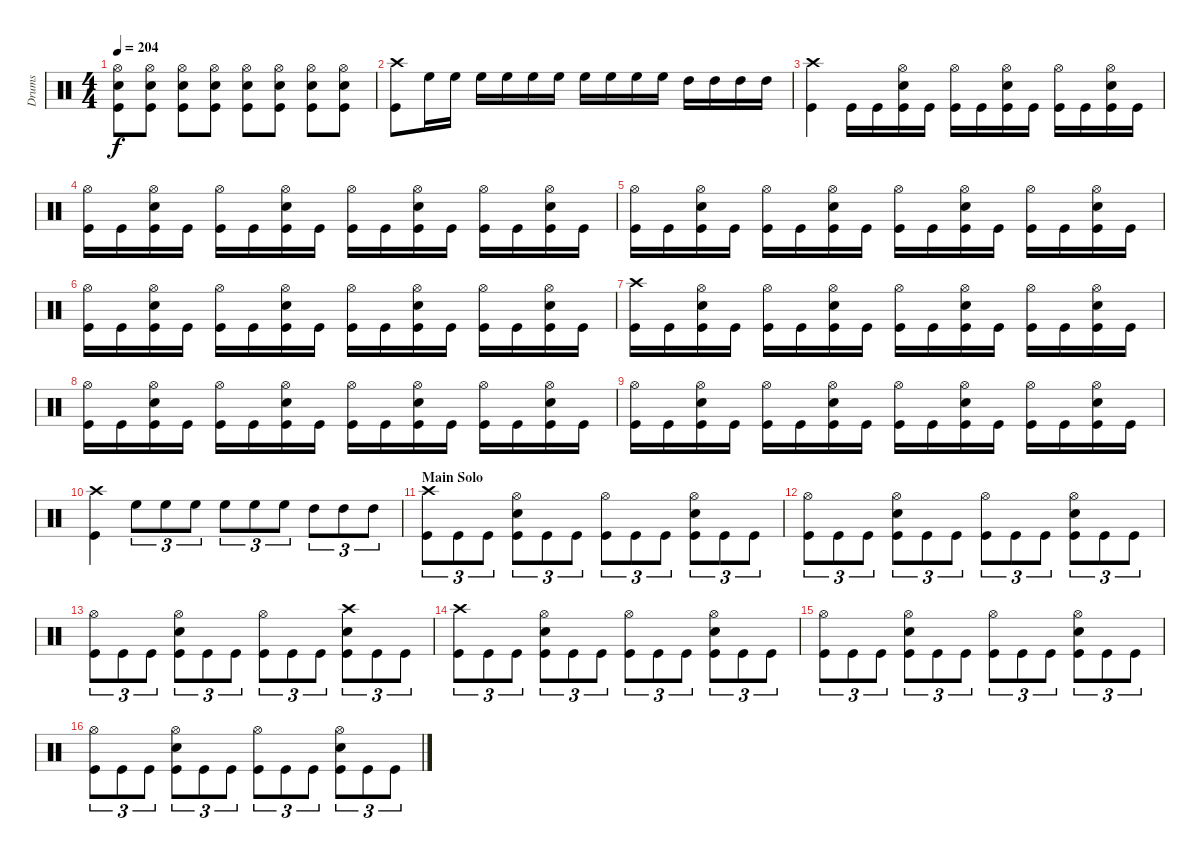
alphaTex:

\track ("Drums" "Drums") {instrument percussion}
\staff {score}
\articulation defaults
\ts (4 4)
\tempo 204
\clef neutral
\ks c
("Hi-Hat (open)" "Snare (hit) 2" "Kick (hit)").8{dy f} ("Hi-Hat (open)" "Snare (hit) 2" "Kick (hit)").8 ("Hi-Hat (open)" "Snare (hit) 2" "Kick (hit)").8 ("Hi-Hat (open)" "Snare (hit) 2" "Kick (hit)").8 ("Hi-Hat (open)" "Snare (hit) 2" "Kick (hit)").8 ("Hi-Hat (open)" "Snare (hit) 2" "Kick (hit)").8 ("Hi-Hat (open)" "Snare (hit) 2" "Kick (hit)").8 ("Hi-Hat (open)" "Snare (hit) 2" "Kick (hit)").8 |
("Crash high (hit)" "Kick (hit)").8 "High Floor Tom (hit)".16 "High Floor Tom (hit)".16 "High Floor Tom (hit)".16 "High Floor Tom (hit)".16 "High Floor Tom (hit)".16 "High Floor Tom (hit)".16 "High Floor Tom (hit)".16 "High Floor Tom (hit)".16 "High Floor Tom (hit)".16 "High Floor Tom (hit)".16 "High Tom (hit)".16 "High Tom (hit)".16 "High Tom (hit)".16 "High Tom (hit)".16 |
("Crash high (hit)" "Kick (hit)").4 "Kick (hit)".16 "Kick (hit)".16 ("Hi-Hat (open)" "Snare (hit) 2" "Kick (hit)").16 "Kick (hit)".16 ("Hi-Hat (open)" "Kick (hit)").16 "Kick (hit)".16 ("Hi-Hat (open)" "Snare (hit) 2" "Kick (hit)").16 "Kick (hit)".16 ("Hi-Hat (open)" "Kick (hit)").16 "Kick (hit)".16 ("Hi-Hat (open)" "Snare (hit) 2" "Kick (hit)").16 "Kick (hit)".16 |
("Hi-Hat (open)" "Kick (hit)").16 "Kick (hit)".16 ("Hi-Hat (open)" "Snare (hit) 2" "Kick (hit)").16 "Kick (hit)".16 ("Hi-Hat (open)" "Kick (hit)").16 "Kick (hit)".16 ("Hi-Hat (open)" "Snare (hit) 2" "Kick (hit)").16 "Kick (hit)".16 ("Hi-Hat (open)" "Kick (hit)").16 "Kick (hit)".16 ("Hi-Hat (open)" "Snare (hit) 2" "Kick (hit)").16 "Kick (hit)".16 ("Hi-Hat (open)" "Kick (hit)").16 "Kick (hit)".16 ("Hi-Hat (open)" "Snare (hit) 2" "Kick (hit)").16 "Kick (hit)".16 |
("Hi-Hat (open)" "Kick (hit)").16 "Kick (hit)".16 ("Hi-Hat (open)" "Snare (hit) 2" "Kick (hit)").16 "Kick (hit)".16 ("Hi-Hat (open)" "Kick (hit)").16 "Kick (hit)".16 ("Hi-Hat (open)" "Snare (hit) 2" "Kick (hit)").16 "Kick (hit)".16 ("Hi-Hat (open)" "Kick (hit)").16 "Kick (hit)".16 ("Hi-Hat (open)" "Snare (hit) 2" "Kick (hit)").16 "Kick (hit)".16 ("Hi-Hat (open)" "Kick (hit)").16 "Kick (hit)".16 ("Hi-Hat (open)" "Snare (hit) 2" "Kick (hit)").16 "Kick (hit)".16 |
("Hi-Hat (open)" "Kick (hit)").16 "Kick (hit)".16 ("Hi-Hat (open)" "Snare (hit) 2" "Kick (hit)").16 "Kick (hit)".16 ("Hi-Hat (open)" "Kick (hit)").16 "Kick (hit)".16 ("Hi-Hat (open)" "Snare (hit) 2" "Kick (hit)").16 "Kick (hit)".16 ("Hi-Hat (open)" "Kick (hit)").16 "Kick (hit)".16 ("Hi-Hat (open)" "Snare (hit) 2" "Kick (hit)").16 "Kick (hit)".16 ("Hi-Hat (open)" "Kick (hit)").16 "Kick (hit)".16 ("Hi-Hat (open)" "Snare (hit) 2" "Kick (hit)").16 "Kick (hit)".16 |
("Crash high (hit)" "Kick (hit)").16 "Kick (hit)".16 ("Hi-Hat (open)" "Snare (hit) 2" "Kick (hit)").16 "Kick (hit)".16 ("Hi-Hat (open)" "Kick (hit)").16 "Kick (hit)".16 ("Hi-Hat (open)" "Snare (hit) 2" "Kick (hit)").16 "Kick (hit)".16 ("Hi-Hat (open)" "Kick (hit)").16 "Kick (hit)".16 ("Hi-Hat (open)" "Snare (hit) 2" "Kick (hit)").16 "Kick (hit)".16 ("Hi-Hat (open)" "Kick (hit)").16 "Kick (hit)".16 ("Hi-Hat (open)" "Snare (hit) 2" "Kick (hit)").16 "Kick (hit)".16 |
("Hi-Hat (open)" "Kick (hit)").16 "Kick (hit)".16 ("Hi-Hat (open)" "Snare (hit) 2" "Kick (hit)").16 "Kick (hit)".16 ("Hi-Hat (open)" "Kick (hit)").16 "Kick (hit)".16 ("Hi-Hat (open)" "Snare (hit) 2" "Kick (hit)").16 "Kick (hit)".16 ("Hi-Hat (open)" "Kick (hit)").16 "Kick (hit)".16 ("Hi-Hat (open)" "Snare (hit) 2" "Kick (hit)").16 "Kick (hit)".16 ("Hi-Hat (open)" "Kick (hit)").16 "Kick (hit)".16 ("Hi-Hat (open)" "Snare (hit) 2" "Kick (hit)").16 "Kick (hit)".16 |
("Hi-Hat (open)" "Kick (hit)").16 "Kick (hit)".16 ("Hi-Hat (open)" "Snare (hit) 2" "Kick (hit)").16 "Kick (hit)".16 ("Hi-Hat (open)" "Kick (hit)").16 "Kick (hit)".16 ("Hi-Hat (open)" "Snare (hit) 2" "Kick (hit)").16 "Kick (hit)".16 ("Hi-Hat (open)" "Kick (hit)").16 "Kick (hit)".16 ("Hi-Hat (open)" "Snare (hit) 2" "Kick (hit)").16 "Kick (hit)".16 ("Hi-Hat (open)" "Kick (hit)").16 "Kick (hit)".16 ("Hi-Hat (open)" "Snare (hit) 2" "Kick (hit)").16 "Kick (hit)".16 |
("Crash high (hit)" "Kick (hit)").4 "High Floor Tom (hit)".8{tu (3 2)} "High Floor Tom (hit)".8{tu (3 2)} "High Floor Tom (hit)".8{tu (3 2)} "High Floor Tom (hit)".8{tu (3 2)} "High Floor Tom (hit)".8{tu (3 2)} "High Floor Tom (hit)".8{tu (3 2)} "High Tom (hit)".8{tu (3 2)} "High Tom (hit)".8{tu (3 2)} "High Tom (hit)".8{tu (3 2)} |
\section ("" "Main Solo")
("Crash high (hit)" "Kick (hit)").8{tu (3 2)} "Kick (hit)".8{tu (3 2)} "Kick (hit)".8{tu (3 2)} ("Hi-Hat (open)" "Snare (hit) 2" "Kick (hit)").8{tu (3 2)} "Kick (hit)".8{tu (3 2)} "Kick (hit)".8{tu (3 2)} ("Hi-Hat (open)" "Kick (hit)").8{tu (3 2)} "Kick (hit)".8{tu (3 2)} "Kick (hit)".8{tu (3 2)} ("Hi-Hat (open)" "Snare (hit) 2" "Kick (hit)").8{tu (3 2)} "Kick (hit)".8{tu (3 2)} "Kick (hit)".8{tu (3 2)} |
("Hi-Hat (open)" "Kick (hit)").8{tu (3 2)} "Kick (hit)".8{tu (3 2)} "Kick (hit)".8{tu (3 2)} ("Hi-Hat (open)" "Snare (hit) 2" "Kick (hit)").8{tu (3 2)} "Kick (hit)".8{tu (3 2)} "Kick (hit)".8{tu (3 2)} ("Hi-Hat (open)" "Kick (hit)").8{tu (3 2)} "Kick (hit)".8{tu (3 2)} "Kick (hit)".8{tu (3 2)} ("Hi-Hat (open)" "Snare (hit) 2" "Kick (hit)").8{tu (3 2)} "Kick (hit)".8{tu (3 2)} "Kick (hit)".8{tu (3 2)} |
("Hi-Hat (open)" "Kick (hit)").8{tu (3 2)} "Kick (hit)".8{tu (3 2)} "Kick (hit)".8{tu (3 2)} ("Hi-Hat (open)" "Snare (hit) 2" "Kick (hit)").8{tu (3 2)} "Kick (hit)".8{tu (3 2)} "Kick (hit)".8{tu (3 2)} ("Hi-Hat (open)" "Kick (hit)").8{tu (3 2)} "Kick (hit)".8{tu (3 2)} "Kick (hit)".8{tu (3 2)} ("Crash high (hit)" "Snare (hit) 2" "Kick (hit)").8{tu (3 2)} "Kick (hit)".8{tu (3 2)} "Kick (hit)".8{tu (3 2)} |
("Crash high (hit)" "Kick (hit)").8{tu (3 2)} "Kick (hit)".8{tu (3 2)} "Kick (hit)".8{tu (3 2)} ("Hi-Hat (open)" "Snare (hit) 2" "Kick (hit)").8{tu (3 2)} "Kick (hit)".8{tu (3 2)} "Kick (hit)".8{tu (3 2)} ("Hi-Hat (open)" "Kick (hit)").8{tu (3 2)} "Kick (hit)".8{tu (3 2)} "Kick (hit)".8{tu (3 2)} ("Hi-Hat (open)" "Snare (hit) 2" "Kick (hit)").8{tu (3 2)} "Kick (hit)".8{tu (3 2)} "Kick (hit)".8{tu (3 2)} |
("Hi-Hat (open)" "Kick (hit)").8{tu (3 2)} "Kick (hit)".8{tu (3 2)} "Kick (hit)".8{tu (3 2)} ("Hi-Hat (open)" "Snare (hit) 2" "Kick (hit)").8{tu (3 2)} "Kick (hit)".8{tu (3 2)} "Kick (hit)".8{tu (3 2)} ("Hi-Hat (open)" "Kick (hit)").8{tu (3 2)} "Kick (hit)".8{tu (3 2)} "Kick (hit)".8{tu (3 2)} ("Hi-Hat (open)" "Snare (hit) 2" "Kick (hit)").8{tu (3 2)} "Kick (hit)".8{tu (3 2)} "Kick (hit)".8{tu (3 2)} |
("Hi-Hat (open)" "Kick (hit)").8{tu (3 2)} "Kick (hit)".8{tu (3 2)} "Kick (hit)".8{tu (3 2)} ("Hi-Hat (open)" "Snare (hit) 2" "Kick (hit)").8{tu (3 2)} "Kick (hit)".8{tu (3 2)} "Kick (hit)".8{tu (3 2)} ("Hi-Hat (open)" "Kick (hit)").8{tu (3 2)} "Kick (hit)".8{tu (3 2)} "Kick (hit)".8{tu (3 2)} ("Hi-Hat (open)" "Snare (hit) 2" "Kick (hit)").8{tu (3 2)} "Kick (hit)".8{tu (3 2)} "Kick (hit)".8{tu (3 2)}
